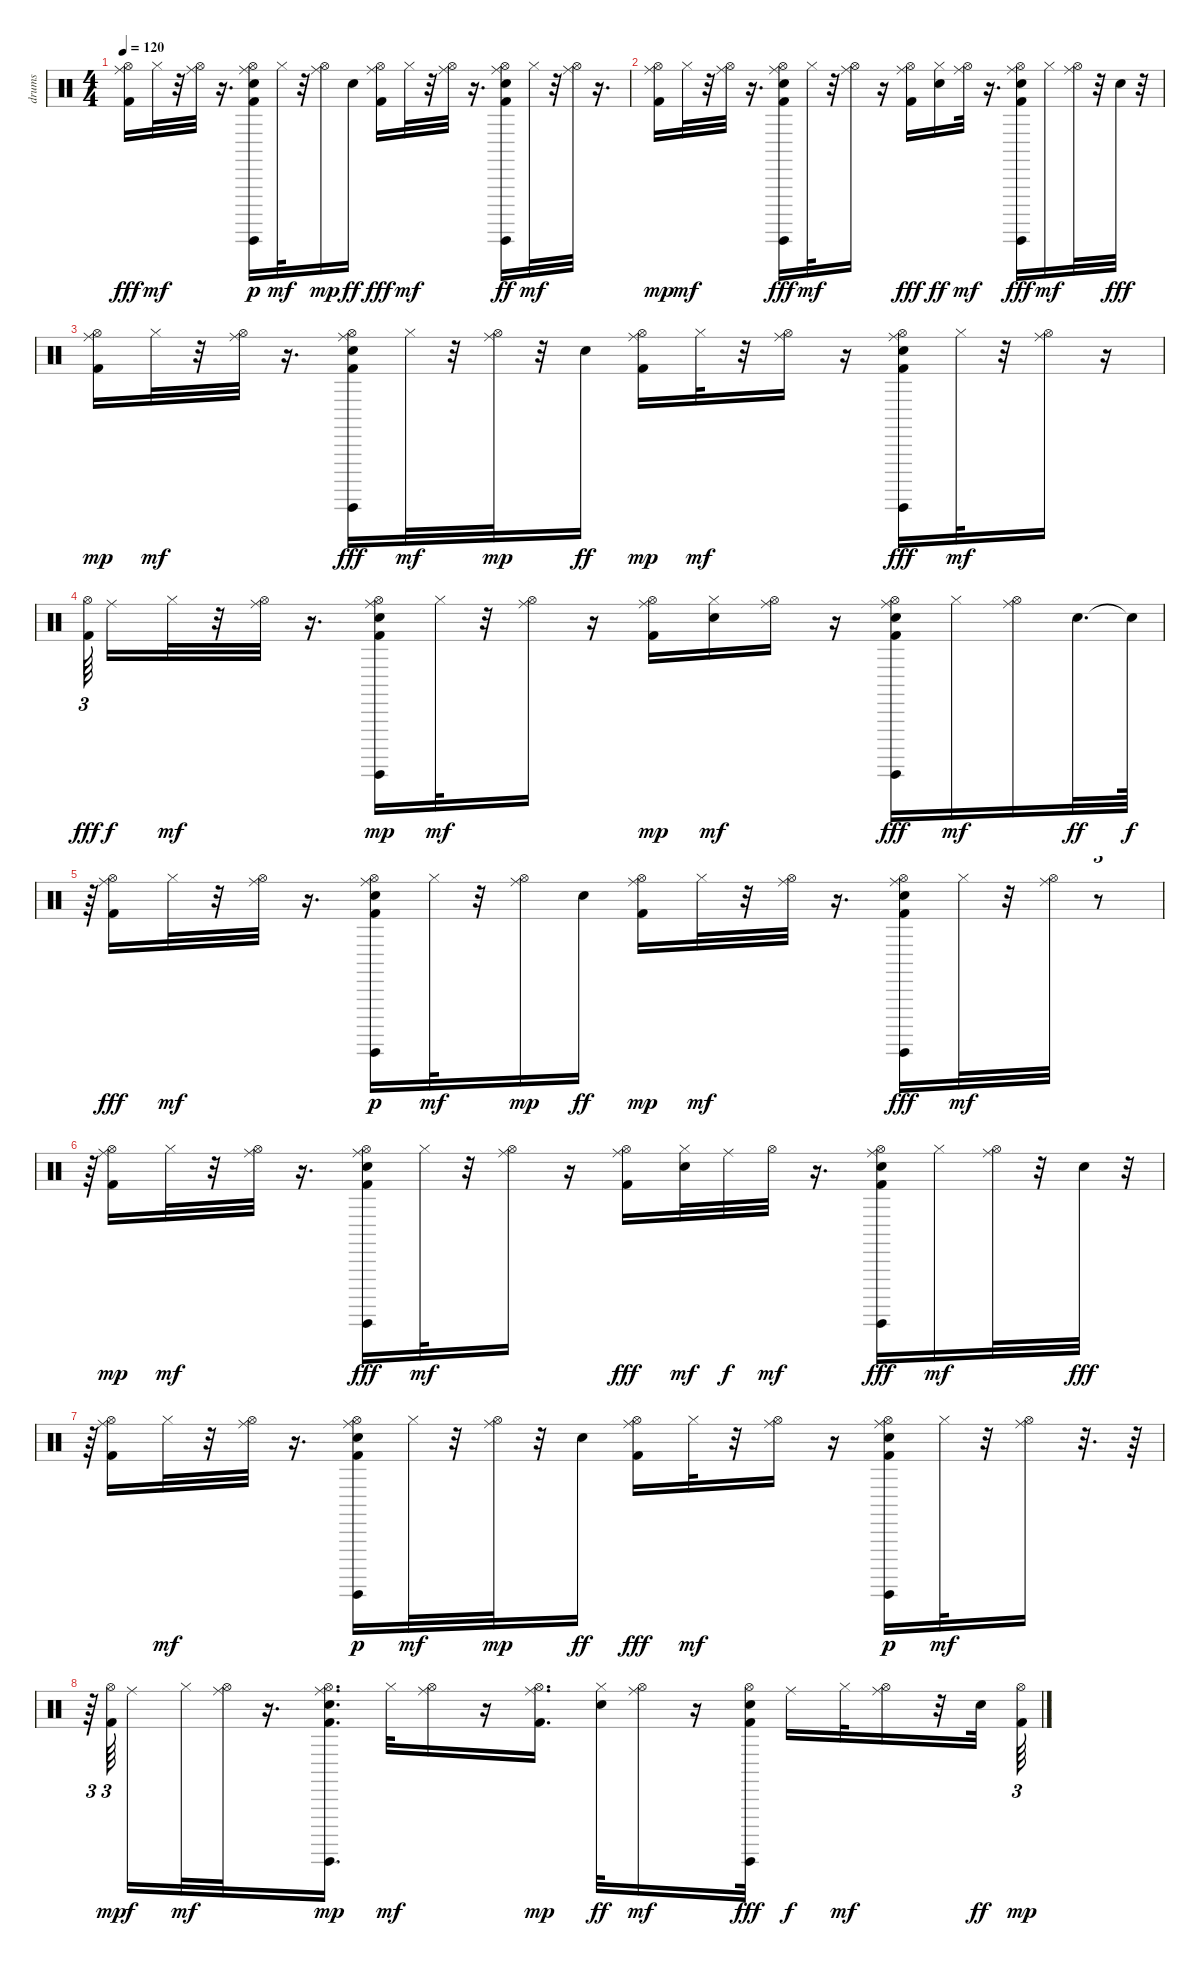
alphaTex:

\track ("drums                               " "drums     ") {instrument percussion}
\staff {score}
\articulation defaults
\ts (4 4)
\tempo 120
\clef neutral
\ks c
("Hi-Hat (open)" "Kick (hit) 2" "Ride (middle)").16{dy fff} "Hi-Hat (closed)".32{dy mf} r.32 ("Hi-Hat (open)" "Ride (middle)").32 r.16{d} ("Guiro (hit)" "Kick (hit) 2" "Electric Snare (hit)" "Hi-Hat (open)" "Ride (middle)").16{dy p} "Hi-Hat (closed)".32{dy mf} r.32 ("Hi-Hat (open)" "Ride (middle)").16{dy mp} "Electric Snare (hit)".16{dy ff} ("Ride (middle)" "Hi-Hat (open)" "Kick (hit) 2").16{dy fff} "Hi-Hat (closed)".32{dy mf} r.32 ("Hi-Hat (open)" "Ride (middle)").32 r.16{d} ("Kick (hit) 2" "Guiro (hit)" "Hi-Hat (open)" "Electric Snare (hit)" "Ride (middle)").16{dy ff} "Hi-Hat (closed)".32{dy mf} r.32 ("Hi-Hat (open)" "Ride (middle)").32 r.16{d} |
("Kick (hit) 2" "Hi-Hat (open)" "Ride (middle)").16{dy mp} "Hi-Hat (closed)".32{dy mf} r.32 ("Ride (middle)" "Hi-Hat (open)").32 r.16{d} ("Hi-Hat (open)" "Kick (hit) 2" "Guiro (hit)" "Electric Snare (hit)" "Ride (middle)").16{dy fff} "Hi-Hat (closed)".32{dy mf} r.32 ("Ride (middle)" "Hi-Hat (open)").16 r.16 ("Ride (middle)" "Hi-Hat (open)" "Kick (hit) 2").16{dy fff} ("Hi-Hat (closed)" "Electric Snare (hit)").16{dy ff} ("Ride (middle)" "Hi-Hat (open)").32{dy mf} r.16{d} ("Ride (middle)" "Guiro (hit)" "Electric Snare (hit)" "Hi-Hat (open)" "Kick (hit) 2").16{dy fff} "Hi-Hat (closed)".16{dy mf} ("Ride (middle)" "Hi-Hat (open)").32 r.32 "Electric Snare (hit)".32{dy fff} r.32 |
("Kick (hit) 2" "Hi-Hat (open)" "Ride (middle)").16{dy mp} "Hi-Hat (closed)".32{dy mf} r.32 ("Ride (middle)" "Hi-Hat (open)").32 r.16{d} ("Hi-Hat (open)" "Electric Snare (hit)" "Guiro (hit)" "Kick (hit) 2" "Ride (middle)").16{dy fff} "Hi-Hat (closed)".32{dy mf} r.32 ("Ride (middle)" "Hi-Hat (open)").32{dy mp} r.32 "Electric Snare (hit)".16{dy ff} ("Kick (hit) 2" "Hi-Hat (open)" "Ride (middle)").16{dy mp} "Hi-Hat (closed)".32{dy mf} r.32 ("Ride (middle)" "Hi-Hat (open)").16 r.16 ("Guiro (hit)" "Electric Snare (hit)" "Hi-Hat (open)" "Kick (hit) 2" "Ride (middle)").16{dy fff} "Hi-Hat (closed)".32{dy mf} r.32 ("Hi-Hat (open)" "Ride (middle)").16 r.16 |
("Hi-Hat (open)" "Kick (hit) 2").64{tu (3 2) dy fff beam splitsecondary} "Ride (middle)".16{dy f} "Hi-Hat (closed)".32{dy mf} r.32 ("Hi-Hat (open)" "Ride (middle)").32 r.16{d} ("Kick (hit) 2" "Guiro (hit)" "Electric Snare (hit)" "Hi-Hat (open)" "Ride (middle)").16{dy mp} "Hi-Hat (closed)".32{dy mf} r.32 ("Hi-Hat (open)" "Ride (middle)").16 r.16 ("Ride (middle)" "Kick (hit) 2" "Hi-Hat (open)").16{dy mp} ("Electric Snare (hit)" "Hi-Hat (closed)").16{dy mf} ("Hi-Hat (open)" "Ride (middle)").16 r.16 ("Hi-Hat (open)" "Electric Snare (hit)" "Kick (hit) 2" "Guiro (hit)" "Ride (middle)").16{dy fff} "Hi-Hat (closed)".16{dy mf} ("Hi-Hat (open)" "Ride (middle)").16 "Electric Snare (hit)".32{d dy ff} "Snare (hit)"{t}.64{dy f} |
r.64{tu (3 2)} ("Hi-Hat (open)" "Kick (hit) 2" "Ride (middle)").16{dy fff} "Hi-Hat (closed)".32{dy mf} r.32 ("Hi-Hat (open)" "Ride (middle)").32 r.16{d} ("Electric Snare (hit)" "Kick (hit) 2" "Guiro (hit)" "Hi-Hat (open)" "Ride (middle)").16{dy p} "Hi-Hat (closed)".32{dy mf} r.32 ("Hi-Hat (open)" "Ride (middle)").16{dy mp} "Electric Snare (hit)".16{dy ff} ("Ride (middle)" "Kick (hit) 2" "Hi-Hat (open)").16{dy mp} "Hi-Hat (closed)".32{dy mf} r.32 ("Hi-Hat (open)" "Ride (middle)").32 r.16{d} ("Hi-Hat (open)" "Guiro (hit)" "Electric Snare (hit)" "Kick (hit) 2" "Ride (middle)").16{dy fff} "Hi-Hat (closed)".32{dy mf} r.32 ("Hi-Hat (open)" "Ride (middle)").32 r.8{tu (3 2)} |
r.64{tu (3 2)} ("Kick (hit) 2" "Hi-Hat (open)" "Ride (middle)").16{dy mp} "Hi-Hat (closed)".32{dy mf} r.32 ("Ride (middle)" "Hi-Hat (open)").32 r.16{d} ("Hi-Hat (open)" "Kick (hit) 2" "Electric Snare (hit)" "Guiro (hit)" "Ride (middle)").16{dy fff} "Hi-Hat (closed)".32{dy mf} r.32 ("Ride (middle)" "Hi-Hat (open)").16 r.16 ("Ride (middle)" "Hi-Hat (open)" "Kick (hit) 2").16{dy fff} ("Electric Snare (hit)" "Hi-Hat (closed)").32{dy mf} "Ride (middle)".32{dy f} "Hi-Hat (open)".32{dy mf} r.16{d} ("Ride (middle)" "Hi-Hat (open)" "Guiro (hit)" "Electric Snare (hit)" "Kick (hit) 2").16{dy fff} "Hi-Hat (closed)".16{dy mf} ("Ride (middle)" "Hi-Hat (open)").32 r.32 "Electric Snare (hit)".32{dy fff} r.32{tu (3 2)} |
r.64{tu (3 2)} ("Hi-Hat (open)" "Ride (middle)" "Kick (hit) 2").16 "Hi-Hat (closed)".32{dy mf} r.32 ("Ride (middle)" "Hi-Hat (open)").32 r.16{d} ("Guiro (hit)" "Kick (hit) 2" "Electric Snare (hit)" "Hi-Hat (open)" "Ride (middle)").16{dy p} "Hi-Hat (closed)".32{dy mf} r.32 ("Hi-Hat (open)" "Ride (middle)").32{dy mp} r.32 "Electric Snare (hit)".16{dy ff} ("Hi-Hat (open)" "Kick (hit) 2" "Ride (middle)").16{dy fff} "Hi-Hat (closed)".32{dy mf} r.32 ("Ride (middle)" "Hi-Hat (open)").16 r.16 ("Electric Snare (hit)" "Kick (hit) 2" "Guiro (hit)" "Hi-Hat (open)" "Ride (middle)").16{dy p} "Hi-Hat (closed)".32{dy mf} r.32 ("Hi-Hat (open)" "Ride (middle)").16 r.32{d} r.64 |
r.64{tu (3 2)} ("Kick (hit) 2" "Hi-Hat (open)").64{tu (3 2) dy mp beam splitsecondary} "Ride (middle)".16{dy f} "Hi-Hat (closed)".32{dy mf} ("Hi-Hat (open)" "Ride (middle)").32 r.16{d} ("Kick (hit) 2" "Electric Snare (hit)" "Hi-Hat (open)" "Guiro (hit)" "Ride (middle)").16{d dy mp} "Hi-Hat (closed)".32{dy mf} ("Hi-Hat (open)" "Ride (middle)").16 r.16 ("Ride (middle)" "Kick (hit) 2" "Hi-Hat (open)").16{d dy mp} ("Hi-Hat (closed)" "Electric Snare (hit)").32{dy ff} ("Hi-Hat (open)" "Ride (middle)").16{dy mf} r.16 ("Guiro (hit)" "Electric Snare (hit)" "Hi-Hat (open)" "Kick (hit) 2").32{dy fff} "Ride (middle)".16{dy f} "Hi-Hat (closed)".32{dy mf} ("Hi-Hat (open)" "Ride (middle)").16 r.32 "Electric Snare (hit)".32{dy ff} ("Kick (hit) 2" "Hi-Hat (open)").64{tu (3 2) dy mp}
